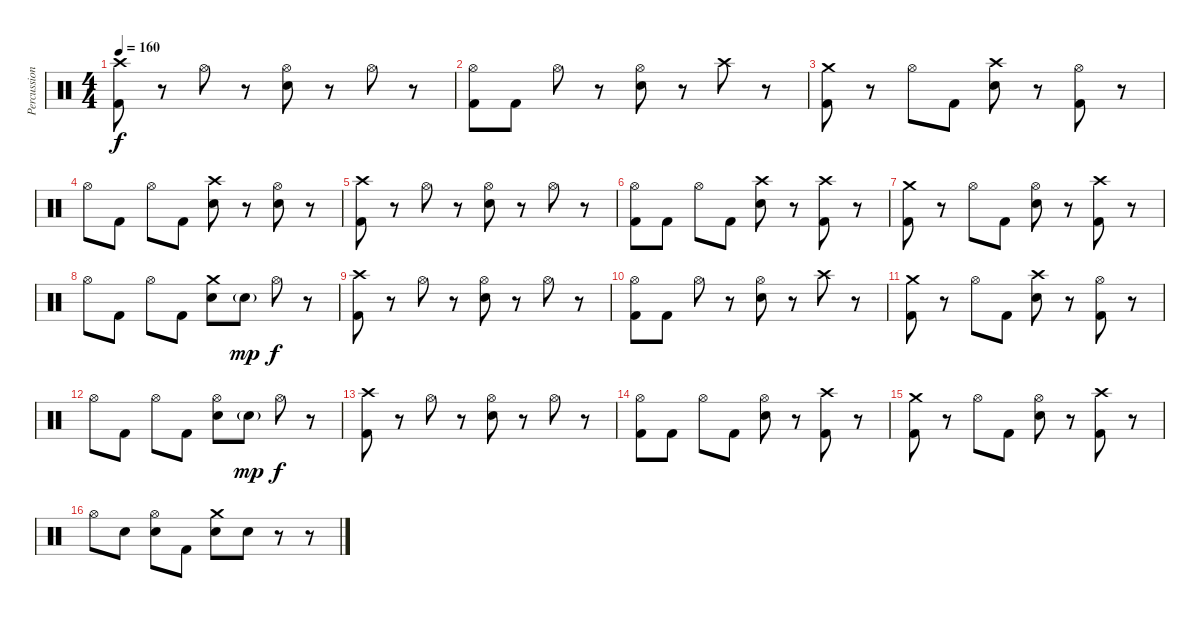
\track ("Percussion" "Percussion") {instrument percussion}
\staff {score}
\articulation defaults
\ts (4 4)
\tempo 160
\clef neutral
\ks c
("Crash high (hit)" "Kick (hit) 2").8{dy f} r.8 "Hi-Hat (open)".8 r.8 ("Hi-Hat (open)" "Electric Snare (hit)").8 r.8 "Hi-Hat (open)".8 r.8 |
("Hi-Hat (open)" "Kick (hit) 2").8 "Kick (hit) 2".8 "Hi-Hat (open)".8 r.8 ("Hi-Hat (open)" "Electric Snare (hit)").8 r.8 "Crash high (hit)".8 r.8 |
("Crash medium (hit)" "Kick (hit) 2").8 r.8 "Hi-Hat (open)".8 "Kick (hit) 2".8 ("Crash high (hit)" "Electric Snare (hit)").8 r.8 ("Hi-Hat (open)" "Kick (hit) 2").8 r.8 |
"Hi-Hat (open)".8 "Kick (hit) 2".8 "Hi-Hat (open)".8 "Kick (hit) 2".8 ("Crash high (hit)" "Electric Snare (hit)").8 r.8 ("Hi-Hat (open)" "Electric Snare (hit)").8 r.8 |
("Crash high (hit)" "Kick (hit) 2").8 r.8 "Hi-Hat (open)".8 r.8 ("Hi-Hat (open)" "Electric Snare (hit)").8 r.8 "Hi-Hat (open)".8 r.8 |
("Hi-Hat (open)" "Kick (hit) 2").8 "Kick (hit) 2".8 "Hi-Hat (open)".8 "Kick (hit) 2".8 ("Crash high (hit)" "Electric Snare (hit)").8 r.8 ("Crash high (hit)" "Kick (hit) 2").8 r.8 |
("Crash medium (hit)" "Kick (hit) 2").8 r.8 "Hi-Hat (open)".8 "Kick (hit) 2".8 ("Hi-Hat (open)" "Electric Snare (hit)").8 r.8 ("Crash high (hit)" "Kick (hit) 2").8 r.8 |
"Hi-Hat (open)".8 "Kick (hit) 2".8 "Hi-Hat (open)".8 "Kick (hit) 2".8 ("Crash medium (hit)" "Electric Snare (hit)").8 "Electric Snare (hit)"{g}.8{dy mp} "Hi-Hat (open)".8{dy f} r.8 |
("Crash high (hit)" "Kick (hit) 2").8 r.8 "Hi-Hat (open)".8 r.8 ("Hi-Hat (open)" "Electric Snare (hit)").8 r.8 "Hi-Hat (open)".8 r.8 |
("Hi-Hat (open)" "Kick (hit) 2").8 "Kick (hit) 2".8 "Hi-Hat (open)".8 r.8 ("Hi-Hat (open)" "Electric Snare (hit)").8 r.8 "Crash high (hit)".8 r.8 |
("Crash medium (hit)" "Kick (hit) 2").8 r.8 "Hi-Hat (open)".8 "Kick (hit) 2".8 ("Crash high (hit)" "Electric Snare (hit)").8 r.8 ("Hi-Hat (open)" "Kick (hit) 2").8 r.8 |
"Hi-Hat (open)".8 "Kick (hit) 2".8 "Hi-Hat (open)".8 "Kick (hit) 2".8 ("Hi-Hat (open)" "Electric Snare (hit)").8 "Electric Snare (hit)"{g}.8{dy mp} "Hi-Hat (open)".8{dy f} r.8 |
("Crash high (hit)" "Kick (hit) 2").8 r.8 "Hi-Hat (open)".8 r.8 ("Hi-Hat (open)" "Electric Snare (hit)").8 r.8 "Hi-Hat (open)".8 r.8 |
("Hi-Hat (open)" "Kick (hit) 2").8 "Kick (hit) 2".8 "Hi-Hat (open)".8 "Kick (hit) 2".8 ("Hi-Hat (open)" "Electric Snare (hit)").8 r.8 ("Crash high (hit)" "Kick (hit) 2").8 r.8 |
("Crash medium (hit)" "Kick (hit) 2").8 r.8 "Hi-Hat (open)".8 "Kick (hit) 2".8 ("Hi-Hat (open)" "Electric Snare (hit)").8 r.8 ("Crash high (hit)" "Kick (hit) 2").8 r.8 |
"Hi-Hat (open)".8 "Electric Snare (hit)".8 ("Hi-Hat (open)" "Electric Snare (hit)").8 "Kick (hit) 2".8 ("Crash medium (hit)" "Electric Snare (hit)").8 "Electric Snare (hit)".8 r.8 r.8
